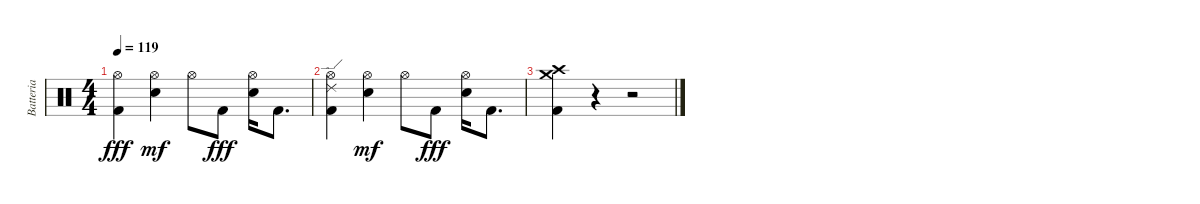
\track ("Batteria" "Batteria") {instrument percussion}
\staff {score}
\articulation defaults
\ts (4 4)
\tempo 119
\clef neutral
\ks c
("Hi-Hat (open)" "Kick (hit) 2").4{dy fff} ("Hi-Hat (open)" "Electric Snare (hit)").4{dy mf} "Hi-Hat (open)".8 "Kick (hit) 2".8{dy fff} ("Hi-Hat (open)" "Electric Snare (hit)").16 "Kick (hit) 2".8{d} |
("Ride (edge) 2" "Hi-Hat (open)" "Kick (hit) 2").4 ("Hi-Hat (open)" "Electric Snare (hit)").4{dy mf} "Hi-Hat (open)".8 "Kick (hit) 2".8{dy fff} ("Hi-Hat (open)" "Electric Snare (hit)").16 "Kick (hit) 2".8{d} |
("Crash high (hit)" "Crash medium (hit)" "Kick (hit) 2").4 r.4 r.2
